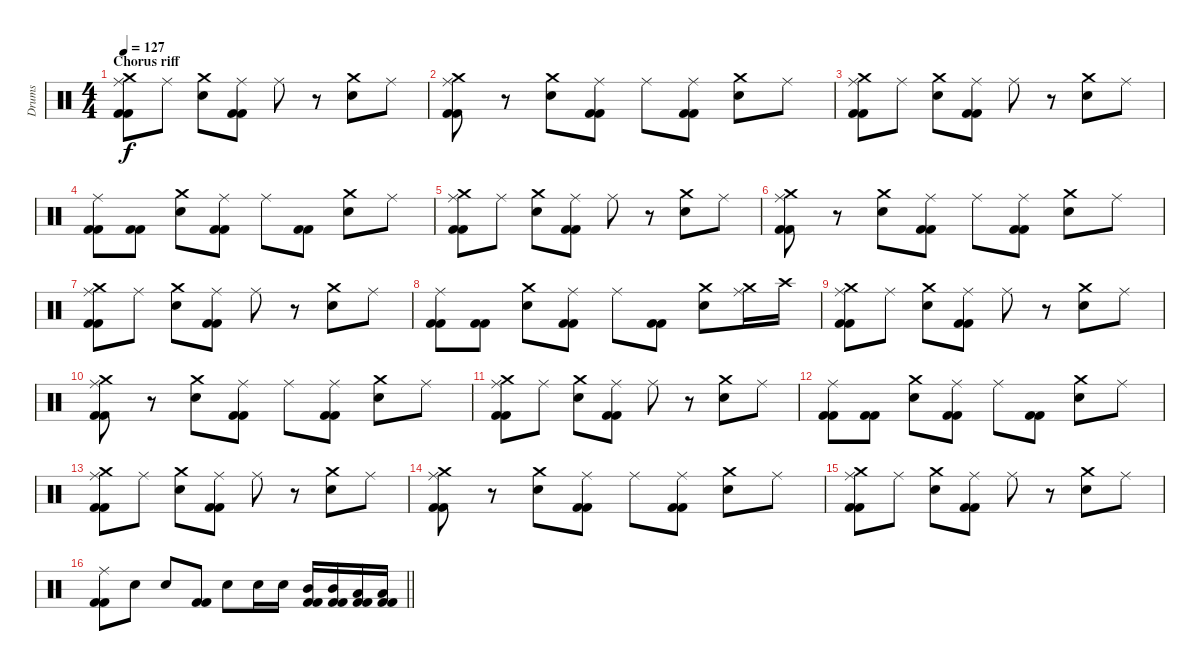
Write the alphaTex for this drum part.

\track ("Drums" "Drums") {instrument percussion}
\staff {score}
\articulation defaults
\ts (4 4)
\section ("" "Chorus riff")
\tempo 127
\clef neutral
\ks c
("Ride (middle)" "Crash medium (hit)" "Kick (hit) 2" "Kick (hit) 2").8{dy f} "Ride (middle)".8 ("Crash medium (hit)" "Electric Snare (hit)").8 ("Ride (middle)" "Kick (hit) 2" "Kick (hit) 2").8 "Ride (middle)".8 r.8 ("Crash medium (hit)" "Electric Snare (hit)").8 "Ride (middle)".8 |
("Ride (middle)" "Crash medium (hit)" "Kick (hit) 2" "Kick (hit) 2").8 r.8 ("Crash medium (hit)" "Electric Snare (hit)").8 ("Ride (middle)" "Kick (hit) 2" "Kick (hit) 2").8 "Ride (middle)".8 ("Ride (middle)" "Kick (hit) 2" "Kick (hit) 2").8 ("Crash medium (hit)" "Electric Snare (hit)").8 "Ride (middle)".8 |
("Ride (middle)" "Crash medium (hit)" "Kick (hit) 2" "Kick (hit) 2").8 "Ride (middle)".8 ("Crash medium (hit)" "Electric Snare (hit)").8 ("Ride (middle)" "Kick (hit) 2" "Kick (hit) 2").8 "Ride (middle)".8 r.8 ("Crash medium (hit)" "Electric Snare (hit)").8 "Ride (middle)".8 |
("Ride (middle)" "Kick (hit) 2" "Kick (hit) 2").8 ("Kick (hit) 2" "Kick (hit) 2").8 ("Crash medium (hit)" "Electric Snare (hit)").8 ("Ride (middle)" "Kick (hit) 2" "Kick (hit) 2").8 "Ride (middle)".8 ("Kick (hit) 2" "Kick (hit) 2").8 ("Crash medium (hit)" "Electric Snare (hit)").8 "Ride (middle)".8 |
("Ride (middle)" "Crash medium (hit)" "Kick (hit) 2" "Kick (hit) 2").8 "Ride (middle)".8 ("Crash medium (hit)" "Electric Snare (hit)").8 ("Ride (middle)" "Kick (hit) 2" "Kick (hit) 2").8 "Ride (middle)".8 r.8 ("Crash medium (hit)" "Electric Snare (hit)").8 "Ride (middle)".8 |
("Ride (middle)" "Crash medium (hit)" "Kick (hit) 2" "Kick (hit) 2").8 r.8 ("Crash medium (hit)" "Electric Snare (hit)").8 ("Ride (middle)" "Kick (hit) 2" "Kick (hit) 2").8 "Ride (middle)".8 ("Ride (middle)" "Kick (hit) 2" "Kick (hit) 2").8 ("Crash medium (hit)" "Electric Snare (hit)").8 "Ride (middle)".8 |
("Ride (middle)" "Crash medium (hit)" "Kick (hit) 2" "Kick (hit) 2").8 "Ride (middle)".8 ("Crash medium (hit)" "Electric Snare (hit)").8 ("Ride (middle)" "Kick (hit) 2" "Kick (hit) 2").8 "Ride (middle)".8 r.8 ("Crash medium (hit)" "Electric Snare (hit)").8 "Ride (middle)".8 |
("Ride (middle)" "Kick (hit) 2" "Kick (hit) 2").8 ("Kick (hit) 2" "Kick (hit) 2").8 ("Crash medium (hit)" "Electric Snare (hit)").8 ("Ride (middle)" "Kick (hit) 2" "Kick (hit) 2").8 "Ride (middle)".8 ("Kick (hit) 2" "Kick (hit) 2").8 ("Crash medium (hit)" "Electric Snare (hit)").8 ("Ride (middle)" "Crash medium (hit)").16 "Crash high (hit)".16 |
("Ride (middle)" "Crash medium (hit)" "Kick (hit) 2" "Kick (hit) 2").8 "Ride (middle)".8 ("Crash medium (hit)" "Electric Snare (hit)").8 ("Ride (middle)" "Kick (hit) 2" "Kick (hit) 2").8 "Ride (middle)".8 r.8 ("Crash medium (hit)" "Electric Snare (hit)").8 "Ride (middle)".8 |
("Ride (middle)" "Crash medium (hit)" "Kick (hit) 2" "Kick (hit) 2").8 r.8 ("Crash medium (hit)" "Electric Snare (hit)").8 ("Ride (middle)" "Kick (hit) 2" "Kick (hit) 2").8 "Ride (middle)".8 ("Ride (middle)" "Kick (hit) 2" "Kick (hit) 2").8 ("Crash medium (hit)" "Electric Snare (hit)").8 "Ride (middle)".8 |
("Ride (middle)" "Crash medium (hit)" "Kick (hit) 2" "Kick (hit) 2").8 "Ride (middle)".8 ("Crash medium (hit)" "Electric Snare (hit)").8 ("Ride (middle)" "Kick (hit) 2" "Kick (hit) 2").8 "Ride (middle)".8 r.8 ("Crash medium (hit)" "Electric Snare (hit)").8 "Ride (middle)".8 |
("Ride (middle)" "Kick (hit) 2" "Kick (hit) 2").8 ("Kick (hit) 2" "Kick (hit) 2").8 ("Crash medium (hit)" "Electric Snare (hit)").8 ("Ride (middle)" "Kick (hit) 2" "Kick (hit) 2").8 "Ride (middle)".8 ("Kick (hit) 2" "Kick (hit) 2").8 ("Crash medium (hit)" "Electric Snare (hit)").8 "Ride (middle)".8 |
("Ride (middle)" "Crash medium (hit)" "Kick (hit) 2" "Kick (hit) 2").8 "Ride (middle)".8 ("Crash medium (hit)" "Electric Snare (hit)").8 ("Ride (middle)" "Kick (hit) 2" "Kick (hit) 2").8 "Ride (middle)".8 r.8 ("Crash medium (hit)" "Electric Snare (hit)").8 "Ride (middle)".8 |
("Ride (middle)" "Crash medium (hit)" "Kick (hit) 2" "Kick (hit) 2").8 r.8 ("Crash medium (hit)" "Electric Snare (hit)").8 ("Ride (middle)" "Kick (hit) 2" "Kick (hit) 2").8 "Ride (middle)".8 ("Ride (middle)" "Kick (hit) 2" "Kick (hit) 2").8 ("Crash medium (hit)" "Electric Snare (hit)").8 "Ride (middle)".8 |
("Ride (middle)" "Crash medium (hit)" "Kick (hit) 2" "Kick (hit) 2").8 "Ride (middle)".8 ("Crash medium (hit)" "Electric Snare (hit)").8 ("Ride (middle)" "Kick (hit) 2" "Kick (hit) 2").8 "Ride (middle)".8 r.8 ("Crash medium (hit)" "Electric Snare (hit)").8 "Ride (middle)".8 |
\barLineRight lightlight
("Ride (middle)" "Kick (hit) 2" "Kick (hit) 2").8 "Electric Snare (hit)".8 "Electric Snare (hit)".8 ("Kick (hit) 2" "Kick (hit) 2").8 "Electric Snare (hit)".8 "Electric Snare (hit)".16 "Electric Snare (hit)".16 ("Mid Tom (hit)" "Kick (hit) 2" "Kick (hit) 2").16 ("Mid Tom (hit)" "Kick (hit) 2" "Kick (hit) 2").16 ("Low Tom (hit)" "Kick (hit) 2" "Kick (hit) 2").16 ("Low Tom (hit)" "Kick (hit) 2" "Kick (hit) 2").16
